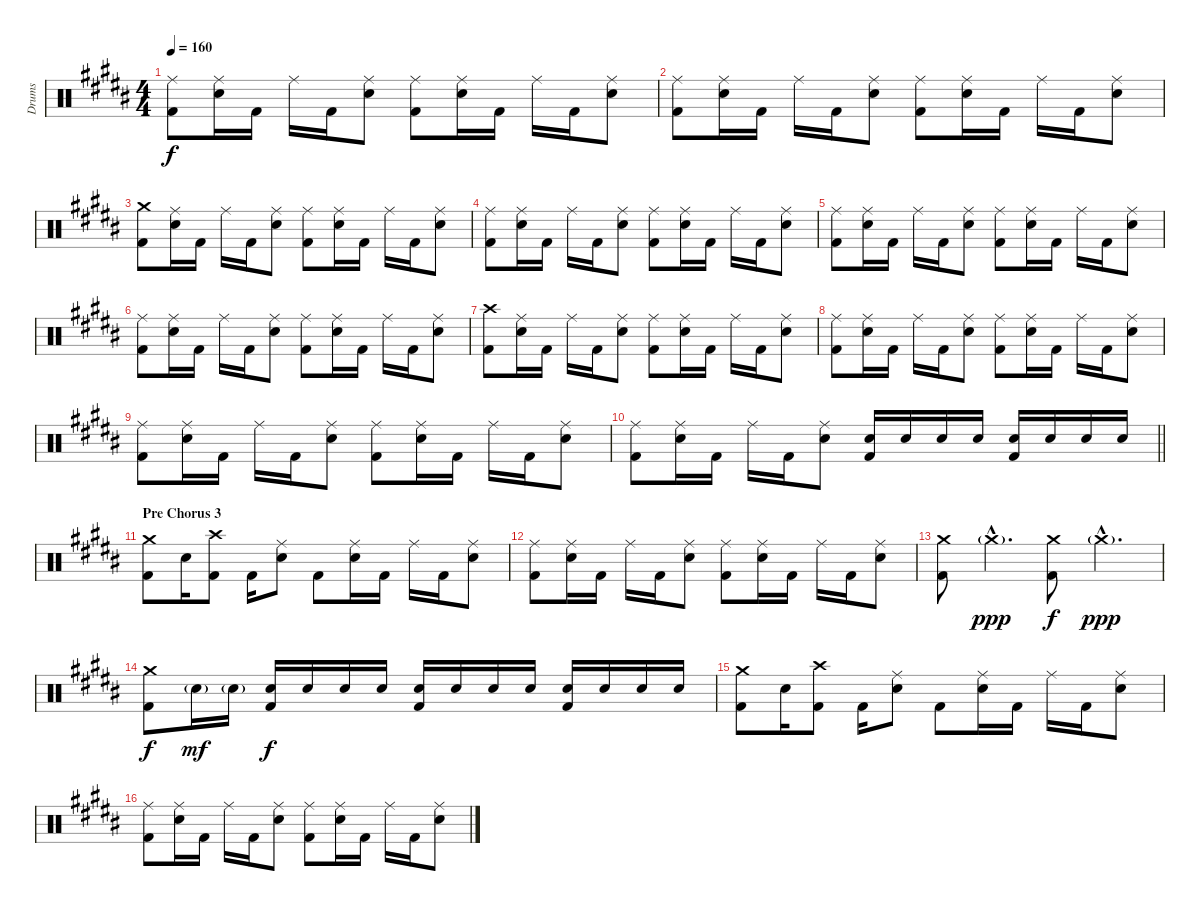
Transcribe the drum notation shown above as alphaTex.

\track ("Drums" "Drums") {instrument percussion}
\staff {score}
\articulation defaults
\ts (4 4)
\tempo 160
\clef neutral
\ks g#minor
("Ride (middle)" "Kick (hit) 2").8{dy f} ("Ride (middle)" "Electric Snare (hit)").16 "Kick (hit) 2".16 "Ride (middle)".16 "Kick (hit) 2".16 ("Ride (middle)" "Electric Snare (hit)").8 ("Ride (middle)" "Kick (hit) 2").8 ("Ride (middle)" "Electric Snare (hit)").16 "Kick (hit) 2".16 "Ride (middle)".16 "Kick (hit) 2".16 ("Ride (middle)" "Electric Snare (hit)").8 |
("Ride (middle)" "Kick (hit) 2").8 ("Ride (middle)" "Electric Snare (hit)").16 "Kick (hit) 2".16 "Ride (middle)".16 "Kick (hit) 2".16 ("Ride (middle)" "Electric Snare (hit)").8 ("Ride (middle)" "Kick (hit) 2").8 ("Ride (middle)" "Electric Snare (hit)").16 "Kick (hit) 2".16 "Ride (middle)".16 "Kick (hit) 2".16 ("Ride (middle)" "Electric Snare (hit)").8 |
("Crash medium (hit)" "Kick (hit) 2").8 ("Ride (middle)" "Electric Snare (hit)").16 "Kick (hit) 2".16 "Ride (middle)".16 "Kick (hit) 2".16 ("Ride (middle)" "Electric Snare (hit)").8 ("Ride (middle)" "Kick (hit) 2").8 ("Ride (middle)" "Electric Snare (hit)").16 "Kick (hit) 2".16 "Ride (middle)".16 "Kick (hit) 2".16 ("Ride (middle)" "Electric Snare (hit)").8 |
("Ride (middle)" "Kick (hit) 2").8 ("Ride (middle)" "Electric Snare (hit)").16 "Kick (hit) 2".16 "Ride (middle)".16 "Kick (hit) 2".16 ("Ride (middle)" "Electric Snare (hit)").8 ("Ride (middle)" "Kick (hit) 2").8 ("Ride (middle)" "Electric Snare (hit)").16 "Kick (hit) 2".16 "Ride (middle)".16 "Kick (hit) 2".16 ("Ride (middle)" "Electric Snare (hit)").8 |
("Ride (middle)" "Kick (hit) 2").8 ("Ride (middle)" "Electric Snare (hit)").16 "Kick (hit) 2".16 "Ride (middle)".16 "Kick (hit) 2".16 ("Ride (middle)" "Electric Snare (hit)").8 ("Ride (middle)" "Kick (hit) 2").8 ("Ride (middle)" "Electric Snare (hit)").16 "Kick (hit) 2".16 "Ride (middle)".16 "Kick (hit) 2".16 ("Ride (middle)" "Electric Snare (hit)").8 |
("Ride (middle)" "Kick (hit) 2").8 ("Ride (middle)" "Electric Snare (hit)").16 "Kick (hit) 2".16 "Ride (middle)".16 "Kick (hit) 2".16 ("Ride (middle)" "Electric Snare (hit)").8 ("Ride (middle)" "Kick (hit) 2").8 ("Ride (middle)" "Electric Snare (hit)").16 "Kick (hit) 2".16 "Ride (middle)".16 "Kick (hit) 2".16 ("Ride (middle)" "Electric Snare (hit)").8 |
("Crash high (hit)" "Kick (hit) 2").8 ("Ride (middle)" "Electric Snare (hit)").16 "Kick (hit) 2".16 "Ride (middle)".16 "Kick (hit) 2".16 ("Ride (middle)" "Electric Snare (hit)").8 ("Ride (middle)" "Kick (hit) 2").8 ("Ride (middle)" "Electric Snare (hit)").16 "Kick (hit) 2".16 "Ride (middle)".16 "Kick (hit) 2".16 ("Ride (middle)" "Electric Snare (hit)").8 |
("Ride (middle)" "Kick (hit) 2").8 ("Ride (middle)" "Electric Snare (hit)").16 "Kick (hit) 2".16 "Ride (middle)".16 "Kick (hit) 2".16 ("Ride (middle)" "Electric Snare (hit)").8 ("Ride (middle)" "Kick (hit) 2").8 ("Ride (middle)" "Electric Snare (hit)").16 "Kick (hit) 2".16 "Ride (middle)".16 "Kick (hit) 2".16 ("Ride (middle)" "Electric Snare (hit)").8 |
("Ride (middle)" "Kick (hit) 2").8 ("Ride (middle)" "Electric Snare (hit)").16 "Kick (hit) 2".16 "Ride (middle)".16 "Kick (hit) 2".16 ("Ride (middle)" "Electric Snare (hit)").8 ("Ride (middle)" "Kick (hit) 2").8 ("Ride (middle)" "Electric Snare (hit)").16 "Kick (hit) 2".16 "Ride (middle)".16 "Kick (hit) 2".16 ("Ride (middle)" "Electric Snare (hit)").8 |
\barLineRight lightlight
("Ride (middle)" "Kick (hit) 2").8 ("Ride (middle)" "Electric Snare (hit)").16 "Kick (hit) 2".16 "Ride (middle)".16 "Kick (hit) 2".16 ("Ride (middle)" "Electric Snare (hit)").8 ("Electric Snare (hit)" "Kick (hit) 2").16 "Electric Snare (hit)".16 "Electric Snare (hit)".16 "Electric Snare (hit)".16 ("Electric Snare (hit)" "Kick (hit) 2").16 "Electric Snare (hit)".16 "Electric Snare (hit)".16 "Electric Snare (hit)".16 |
\section ("" "Pre Chorus 3")
("Crash medium (hit)" "Kick (hit) 2").8 "Electric Snare (hit)".16 ("Crash high (hit)" "Kick (hit) 2").8 "Kick (hit) 2".16 ("Ride (middle)" "Electric Snare (hit)").8 "Kick (hit) 2".8 ("Ride (middle)" "Electric Snare (hit)").16 "Kick (hit) 2".16 "Ride (middle)".16 "Kick (hit) 2".16 ("Ride (middle)" "Electric Snare (hit)").8 |
("Ride (middle)" "Kick (hit) 2").8 ("Ride (middle)" "Electric Snare (hit)").16 "Kick (hit) 2".16 "Ride (middle)".16 "Kick (hit) 2".16 ("Ride (middle)" "Electric Snare (hit)").8 ("Ride (middle)" "Kick (hit) 2").8 ("Ride (middle)" "Electric Snare (hit)").16 "Kick (hit) 2".16 "Ride (middle)".16 "Kick (hit) 2".16 ("Ride (middle)" "Electric Snare (hit)").8 |
("Crash medium (hit)" "Kick (hit) 2").8 "Crash medium (hit)"{g hac}.4{d dy ppp} ("Crash medium (hit)" "Kick (hit) 2").8{dy f} "Crash medium (hit)"{g hac}.4{d dy ppp} |
("Crash medium (hit)" "Kick (hit) 2").8{dy f} "Electric Snare (hit)"{g}.16{dy mf} "Electric Snare (hit)"{g}.16 ("Electric Snare (hit)" "Kick (hit) 2").16{dy f} "Electric Snare (hit)".16 "Electric Snare (hit)".16 "Electric Snare (hit)".16 ("Electric Snare (hit)" "Kick (hit) 2").16 "Electric Snare (hit)".16 "Electric Snare (hit)".16 "Electric Snare (hit)".16 ("Electric Snare (hit)" "Kick (hit) 2").16 "Electric Snare (hit)".16 "Electric Snare (hit)".16 "Electric Snare (hit)".16 |
("Crash medium (hit)" "Kick (hit) 2").8 "Electric Snare (hit)".16 ("Crash high (hit)" "Kick (hit) 2").8 "Kick (hit) 2".16 ("Ride (middle)" "Electric Snare (hit)").8 "Kick (hit) 2".8 ("Ride (middle)" "Electric Snare (hit)").16 "Kick (hit) 2".16 "Ride (middle)".16 "Kick (hit) 2".16 ("Ride (middle)" "Electric Snare (hit)").8 |
("Ride (middle)" "Kick (hit) 2").8 ("Ride (middle)" "Electric Snare (hit)").16 "Kick (hit) 2".16 "Ride (middle)".16 "Kick (hit) 2".16 ("Ride (middle)" "Electric Snare (hit)").8 ("Ride (middle)" "Kick (hit) 2").8 ("Ride (middle)" "Electric Snare (hit)").16 "Kick (hit) 2".16 "Ride (middle)".16 "Kick (hit) 2".16 ("Ride (middle)" "Electric Snare (hit)").8
